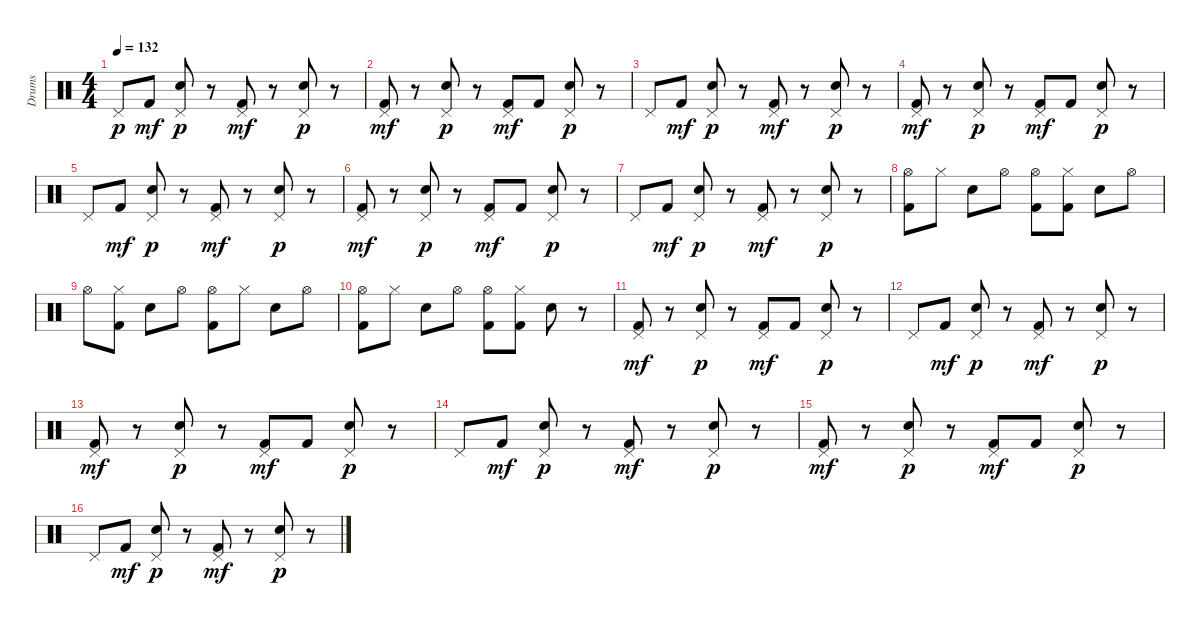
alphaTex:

\track ("Drums" "Drums") {instrument percussion}
\staff {score}
\articulation defaults
\ts (4 4)
\tempo 132
\clef neutral
\ks c "Pedal Hi-Hat (hit)".8{dy p} "Kick (hit) 2".8{dy mf}
("Pedal Hi-Hat (hit)" "Snare (hit) 2").8{dy p} r.8 ("Pedal Hi-Hat (hit)" "Kick (hit) 2").8{dy mf} r.8 ("Pedal Hi-Hat (hit)" "Snare (hit) 2").8{dy p} r.8 |
("Pedal Hi-Hat (hit)" "Kick (hit) 2").8{dy mf} r.8 ("Pedal Hi-Hat (hit)" "Snare (hit) 2").8{dy p} r.8 ("Pedal Hi-Hat (hit)" "Kick (hit) 2").8{dy mf} "Kick (hit) 2".8 ("Pedal Hi-Hat (hit)" "Snare (hit) 2").8{dy p} r.8 |
"Pedal Hi-Hat (hit)".8 "Kick (hit) 2".8{dy mf} ("Pedal Hi-Hat (hit)" "Snare (hit) 2").8{dy p} r.8 ("Pedal Hi-Hat (hit)" "Kick (hit) 2").8{dy mf} r.8 ("Pedal Hi-Hat (hit)" "Snare (hit) 2").8{dy p} r.8 |
("Pedal Hi-Hat (hit)" "Kick (hit) 2").8{dy mf} r.8 ("Pedal Hi-Hat (hit)" "Snare (hit) 2").8{dy p} r.8 ("Pedal Hi-Hat (hit)" "Kick (hit) 2").8{dy mf} "Kick (hit) 2".8 ("Pedal Hi-Hat (hit)" "Snare (hit) 2").8{dy p} r.8 |
"Pedal Hi-Hat (hit)".8 "Kick (hit) 2".8{dy mf} ("Pedal Hi-Hat (hit)" "Snare (hit) 2").8{dy p} r.8 ("Pedal Hi-Hat (hit)" "Kick (hit) 2").8{dy mf} r.8 ("Pedal Hi-Hat (hit)" "Snare (hit) 2").8{dy p} r.8 |
("Pedal Hi-Hat (hit)" "Kick (hit) 2").8{dy mf} r.8 ("Pedal Hi-Hat (hit)" "Snare (hit) 2").8{dy p} r.8 ("Pedal Hi-Hat (hit)" "Kick (hit) 2").8{dy mf} "Kick (hit) 2".8 ("Pedal Hi-Hat (hit)" "Snare (hit) 2").8{dy p} r.8 |
"Pedal Hi-Hat (hit)".8 "Kick (hit) 2".8{dy mf} ("Pedal Hi-Hat (hit)" "Snare (hit) 2").8{dy p} r.8 ("Pedal Hi-Hat (hit)" "Kick (hit) 2").8{dy mf} r.8 ("Pedal Hi-Hat (hit)" "Snare (hit) 2").8{dy p} r.8 |
("Hi-Hat (open)" "Kick (hit) 2").8 "Hi-Hat (closed)".8 "Snare (hit) 2".8 "Hi-Hat (open)".8 ("Hi-Hat (open)" "Kick (hit) 2").8 ("Hi-Hat (closed)" "Kick (hit) 2").8 "Snare (hit) 2".8 "Hi-Hat (open)".8 |
"Hi-Hat (open)".8 ("Hi-Hat (closed)" "Kick (hit) 2").8 "Snare (hit) 2".8 "Hi-Hat (open)".8 ("Hi-Hat (open)" "Kick (hit) 2").8 "Hi-Hat (closed)".8 "Snare (hit) 2".8 "Hi-Hat (open)".8 |
("Hi-Hat (open)" "Kick (hit) 2").8 "Hi-Hat (closed)".8 "Snare (hit) 2".8 "Hi-Hat (open)".8 ("Hi-Hat (open)" "Kick (hit) 2").8 ("Hi-Hat (closed)" "Kick (hit) 2").8 "Snare (hit) 2".8 r.8 |
("Pedal Hi-Hat (hit)" "Kick (hit) 2").8{dy mf} r.8 ("Pedal Hi-Hat (hit)" "Snare (hit) 2").8{dy p} r.8 ("Pedal Hi-Hat (hit)" "Kick (hit) 2").8{dy mf} "Kick (hit) 2".8 ("Pedal Hi-Hat (hit)" "Snare (hit) 2").8{dy p} r.8 |
"Pedal Hi-Hat (hit)".8 "Kick (hit) 2".8{dy mf} ("Pedal Hi-Hat (hit)" "Snare (hit) 2").8{dy p} r.8 ("Pedal Hi-Hat (hit)" "Kick (hit) 2").8{dy mf} r.8 ("Pedal Hi-Hat (hit)" "Snare (hit) 2").8{dy p} r.8 |
("Pedal Hi-Hat (hit)" "Kick (hit) 2").8{dy mf} r.8 ("Pedal Hi-Hat (hit)" "Snare (hit) 2").8{dy p} r.8 ("Pedal Hi-Hat (hit)" "Kick (hit) 2").8{dy mf} "Kick (hit) 2".8 ("Pedal Hi-Hat (hit)" "Snare (hit) 2").8{dy p} r.8 |
"Pedal Hi-Hat (hit)".8 "Kick (hit) 2".8{dy mf} ("Pedal Hi-Hat (hit)" "Snare (hit) 2").8{dy p} r.8 ("Pedal Hi-Hat (hit)" "Kick (hit) 2").8{dy mf} r.8 ("Pedal Hi-Hat (hit)" "Snare (hit) 2").8{dy p} r.8 |
("Pedal Hi-Hat (hit)" "Kick (hit) 2").8{dy mf} r.8 ("Pedal Hi-Hat (hit)" "Snare (hit) 2").8{dy p} r.8 ("Pedal Hi-Hat (hit)" "Kick (hit) 2").8{dy mf} "Kick (hit) 2".8 ("Pedal Hi-Hat (hit)" "Snare (hit) 2").8{dy p} r.8 |
"Pedal Hi-Hat (hit)".8 "Kick (hit) 2".8{dy mf} ("Pedal Hi-Hat (hit)" "Snare (hit) 2").8{dy p} r.8 ("Pedal Hi-Hat (hit)" "Kick (hit) 2").8{dy mf} r.8 ("Pedal Hi-Hat (hit)" "Snare (hit) 2").8{dy p} r.8
